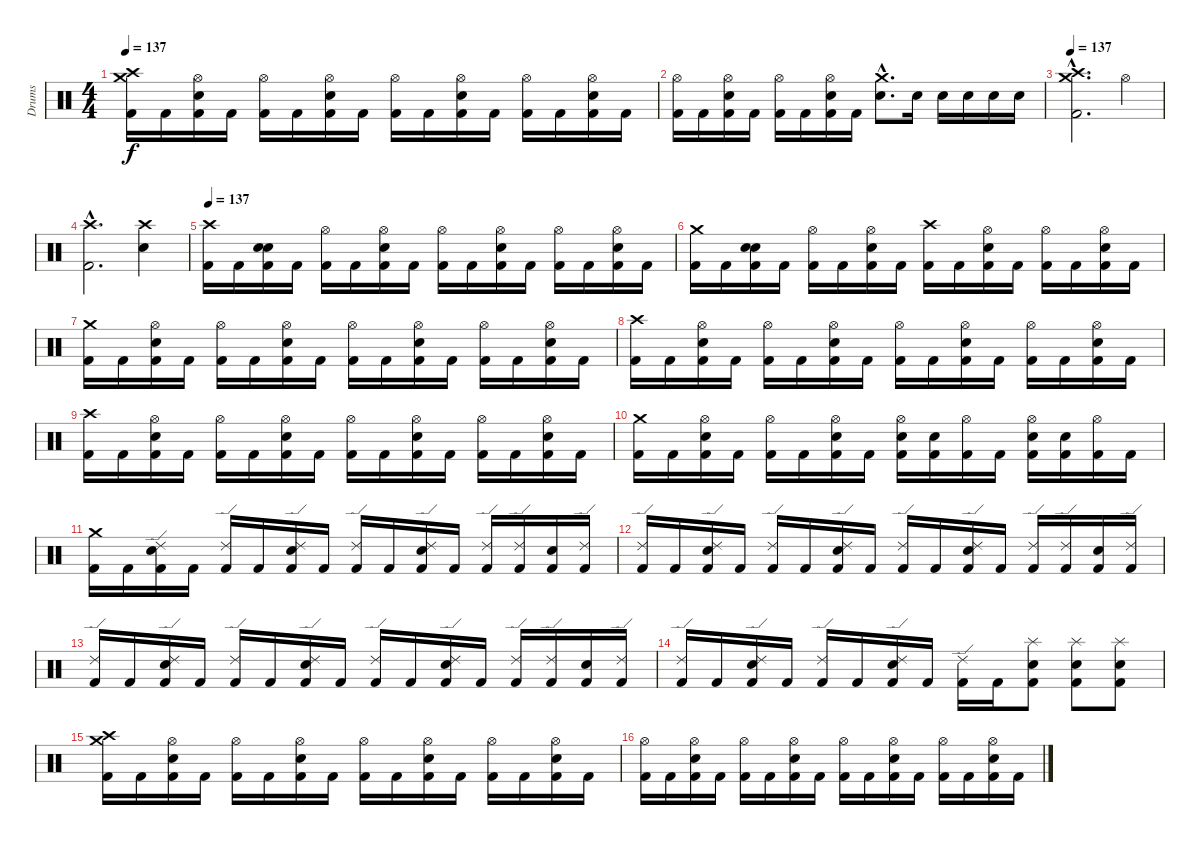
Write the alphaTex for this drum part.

\track ("Drums" "Drums") {instrument percussion}
\staff {score}
\articulation defaults
\ts (4 4)
\tempo 137
\clef neutral
\ks c
("Crash medium (hit)" "Crash high (hit)" "Kick (hit) 2").16{dy f} "Kick (hit) 2".16 ("Hi-Hat (open)" "Snare (hit) 2" "Kick (hit) 2").16 "Kick (hit) 2".16 ("Hi-Hat (open)" "Kick (hit) 2").16 "Kick (hit) 2".16 ("Hi-Hat (open)" "Snare (hit) 2" "Kick (hit) 2").16 "Kick (hit) 2".16 ("Hi-Hat (open)" "Kick (hit) 2").16 "Kick (hit) 2".16 ("Hi-Hat (open)" "Snare (hit) 2" "Kick (hit) 2").16 "Kick (hit) 2".16 ("Hi-Hat (open)" "Kick (hit) 2").16 "Kick (hit) 2".16 ("Hi-Hat (open)" "Snare (hit) 2" "Kick (hit) 2").16 "Kick (hit) 2".16 |
("Hi-Hat (open)" "Kick (hit) 2").16 "Kick (hit) 2".16 ("Hi-Hat (open)" "Snare (hit) 2" "Kick (hit) 2").16 "Kick (hit) 2".16 ("Hi-Hat (open)" "Kick (hit) 2").16 "Kick (hit) 2".16 ("Hi-Hat (open)" "Snare (hit) 2" "Kick (hit) 2").16 "Kick (hit) 2".16 ("Crash medium (hit)" "Snare (hit) 2"{hac}).8{d} "Snare (hit) 2".16 "Snare (hit) 2".16 "Snare (hit) 2".16 "Electric Snare (hit)".16 "Snare (hit) 2".16 |
\tempo 137
("Crash high (hit)" "Crash medium (hit)" "Kick (hit) 2"{hac}).2{d} "Hi-Hat (open)".4 |
("Crash high (hit)"{hac} "Kick (hit) 2"{hac}).2{d} ("Crash high (hit)" "Snare (hit) 2").4 |
\tempo 137
("Crash high (hit)" "Kick (hit) 2").16 "Kick (hit) 2".16 ("Electric Snare (hit)" "Snare (hit) 2" "Kick (hit) 2").16 "Kick (hit) 2".16 ("Hi-Hat (open)" "Kick (hit) 2").16 "Kick (hit) 2".16 ("Hi-Hat (open)" "Snare (hit) 2" "Kick (hit) 2").16 "Kick (hit) 2".16 ("Hi-Hat (open)" "Kick (hit) 2").16 "Kick (hit) 2".16 ("Hi-Hat (open)" "Snare (hit) 2" "Kick (hit) 2").16 "Kick (hit) 2".16 ("Hi-Hat (open)" "Kick (hit) 2").16 "Kick (hit) 2".16 ("Hi-Hat (open)" "Snare (hit) 2" "Kick (hit) 2").16 "Kick (hit) 2".16 |
("Crash medium (hit)" "Kick (hit) 2").16 "Kick (hit) 2".16 ("Electric Snare (hit)" "Snare (hit) 2" "Kick (hit) 2").16 "Kick (hit) 2".16 ("Hi-Hat (open)" "Kick (hit) 2").16 "Kick (hit) 2".16 ("Hi-Hat (open)" "Snare (hit) 2" "Kick (hit) 2").16 "Kick (hit) 2".16 ("Crash high (hit)" "Kick (hit) 2").16 "Kick (hit) 2".16 ("Hi-Hat (open)" "Snare (hit) 2" "Kick (hit) 2").16 "Kick (hit) 2".16 ("Hi-Hat (open)" "Kick (hit) 2").16 "Kick (hit) 2".16 ("Hi-Hat (open)" "Snare (hit) 2" "Kick (hit) 2").16 "Kick (hit) 2".16 |
("Crash medium (hit)" "Kick (hit) 2").16 "Kick (hit) 2".16 ("Hi-Hat (open)" "Snare (hit) 2" "Kick (hit) 2").16 "Kick (hit) 2".16 ("Hi-Hat (open)" "Kick (hit) 2").16 "Kick (hit) 2".16 ("Hi-Hat (open)" "Snare (hit) 2" "Kick (hit) 2").16 "Kick (hit) 2".16 ("Hi-Hat (open)" "Kick (hit) 2").16 "Kick (hit) 2".16 ("Hi-Hat (open)" "Snare (hit) 2" "Kick (hit) 2").16 "Kick (hit) 2".16 ("Hi-Hat (open)" "Kick (hit) 2").16 "Kick (hit) 2".16 ("Hi-Hat (open)" "Snare (hit) 2" "Kick (hit) 2").16 "Kick (hit) 2".16 |
("Crash high (hit)" "Kick (hit) 2").16 "Kick (hit) 2".16 ("Hi-Hat (open)" "Snare (hit) 2" "Kick (hit) 2").16 "Kick (hit) 2".16 ("Hi-Hat (open)" "Kick (hit) 2").16 "Kick (hit) 2".16 ("Hi-Hat (open)" "Snare (hit) 2" "Kick (hit) 2").16 "Kick (hit) 2".16 ("Hi-Hat (open)" "Kick (hit) 2").16 "Kick (hit) 2".16 ("Hi-Hat (open)" "Snare (hit) 2" "Kick (hit) 2").16 "Kick (hit) 2".16 ("Hi-Hat (open)" "Kick (hit) 2").16 "Kick (hit) 2".16 ("Hi-Hat (open)" "Snare (hit) 2" "Kick (hit) 2").16 "Kick (hit) 2".16 |
("Crash high (hit)" "Kick (hit) 2").16 "Kick (hit) 2".16 ("Hi-Hat (open)" "Snare (hit) 2" "Kick (hit) 2").16 "Kick (hit) 2".16 ("Hi-Hat (open)" "Kick (hit) 2").16 "Kick (hit) 2".16 ("Hi-Hat (open)" "Snare (hit) 2" "Kick (hit) 2").16 "Kick (hit) 2".16 ("Hi-Hat (open)" "Kick (hit) 2").16 "Kick (hit) 2".16 ("Hi-Hat (open)" "Snare (hit) 2" "Kick (hit) 2").16 "Kick (hit) 2".16 ("Hi-Hat (open)" "Kick (hit) 2").16 "Kick (hit) 2".16 ("Hi-Hat (open)" "Snare (hit) 2" "Kick (hit) 2").16 "Kick (hit) 2".16 |
("Crash medium (hit)" "Kick (hit) 2").16 "Kick (hit) 2".16 ("Hi-Hat (open)" "Snare (hit) 2" "Kick (hit) 2").16 "Kick (hit) 2".16 ("Hi-Hat (open)" "Kick (hit) 2").16 "Kick (hit) 2".16 ("Hi-Hat (open)" "Snare (hit) 2" "Kick (hit) 2").16 "Kick (hit) 2".16 ("Hi-Hat (open)" "Snare (hit) 2" "Kick (hit) 2").16 ("Snare (hit) 2" "Kick (hit) 2").16 ("Hi-Hat (open)" "Kick (hit) 2").16 "Kick (hit) 2".16 ("Hi-Hat (open)" "Snare (hit) 2" "Kick (hit) 2").16 ("Snare (hit) 2" "Kick (hit) 2").16 ("Hi-Hat (open)" "Kick (hit) 2").16 "Kick (hit) 2".16 |
("Crash medium (hit)" "Kick (hit) 2").16 "Kick (hit) 2".16 ("Ride (edge) 2" "Snare (hit) 2" "Kick (hit) 2").16 "Kick (hit) 2".16 ("Ride (edge) 2" "Kick (hit) 2").16 "Kick (hit) 2".16 ("Ride (edge) 2" "Snare (hit) 2" "Kick (hit) 2").16 "Kick (hit) 2".16 ("Ride (edge) 2" "Kick (hit) 2").16 "Kick (hit) 2".16 ("Ride (edge) 2" "Snare (hit) 2" "Kick (hit) 2").16 "Kick (hit) 2".16 ("Ride (edge) 2" "Kick (hit) 2").16 ("Ride (edge) 2" "Kick (hit) 2").16 ("Snare (hit) 2" "Kick (hit) 2").16 ("Ride (edge) 2" "Kick (hit) 2").16 |
("Ride (edge) 2" "Kick (hit) 2").16 "Kick (hit) 2".16 ("Ride (edge) 2" "Snare (hit) 2" "Kick (hit) 2").16 "Kick (hit) 2".16 ("Ride (edge) 2" "Kick (hit) 2").16 "Kick (hit) 2".16 ("Ride (edge) 2" "Snare (hit) 2" "Kick (hit) 2").16 "Kick (hit) 2".16 ("Ride (edge) 2" "Kick (hit) 2").16 "Kick (hit) 2".16 ("Ride (edge) 2" "Snare (hit) 2" "Kick (hit) 2").16 "Kick (hit) 2".16 ("Ride (edge) 2" "Kick (hit) 2").16 ("Ride (edge) 2" "Kick (hit) 2").16 ("Snare (hit) 2" "Kick (hit) 2").16 ("Ride (edge) 2" "Kick (hit) 2").16 |
("Ride (edge) 2" "Kick (hit) 2").16 "Kick (hit) 2".16 ("Ride (edge) 2" "Snare (hit) 2" "Kick (hit) 2").16 "Kick (hit) 2".16 ("Ride (edge) 2" "Kick (hit) 2").16 "Kick (hit) 2".16 ("Ride (edge) 2" "Snare (hit) 2" "Kick (hit) 2").16 "Kick (hit) 2".16 ("Ride (edge) 2" "Kick (hit) 2").16 "Kick (hit) 2".16 ("Ride (edge) 2" "Snare (hit) 2" "Kick (hit) 2").16 "Kick (hit) 2".16 ("Ride (edge) 2" "Kick (hit) 2").16 ("Ride (edge) 2" "Kick (hit) 2").16 ("Snare (hit) 2" "Kick (hit) 2").16 ("Ride (edge) 2" "Kick (hit) 2").16 |
("Ride (edge) 2" "Kick (hit) 2").16 "Kick (hit) 2".16 ("Ride (edge) 2" "Snare (hit) 2" "Kick (hit) 2").16 "Kick (hit) 2".16 ("Ride (edge) 2" "Kick (hit) 2").16 "Kick (hit) 2".16 ("Ride (edge) 2" "Snare (hit) 2" "Kick (hit) 2").16 "Kick (hit) 2".16 ("Ride (edge) 2" "Kick (hit) 2").16 "Kick (hit) 2".16 ("Splash (hit)" "Snare (hit) 2" "Kick (hit) 2").8 ("Splash (hit)" "Snare (hit) 2" "Kick (hit) 2").8 ("Splash (hit)" "Snare (hit) 2" "Kick (hit) 2").8 |
("Crash medium (hit)" "Crash high (hit)" "Kick (hit) 2").16 "Kick (hit) 2".16 ("Hi-Hat (open)" "Snare (hit) 2" "Kick (hit) 2").16 "Kick (hit) 2".16 ("Hi-Hat (open)" "Kick (hit) 2").16 "Kick (hit) 2".16 ("Hi-Hat (open)" "Snare (hit) 2" "Kick (hit) 2").16 "Kick (hit) 2".16 ("Hi-Hat (open)" "Kick (hit) 2").16 "Kick (hit) 2".16 ("Hi-Hat (open)" "Snare (hit) 2" "Kick (hit) 2").16 "Kick (hit) 2".16 ("Hi-Hat (open)" "Kick (hit) 2").16 "Kick (hit) 2".16 ("Hi-Hat (open)" "Snare (hit) 2" "Kick (hit) 2").16 "Kick (hit) 2".16 |
("Hi-Hat (open)" "Kick (hit) 2").16 "Kick (hit) 2".16 ("Hi-Hat (open)" "Snare (hit) 2" "Kick (hit) 2").16 "Kick (hit) 2".16 ("Hi-Hat (open)" "Kick (hit) 2").16 "Kick (hit) 2".16 ("Hi-Hat (open)" "Snare (hit) 2" "Kick (hit) 2").16 "Kick (hit) 2".16 ("Hi-Hat (open)" "Kick (hit) 2").16 "Kick (hit) 2".16 ("Hi-Hat (open)" "Snare (hit) 2" "Kick (hit) 2").16 "Kick (hit) 2".16 ("Hi-Hat (open)" "Kick (hit) 2").16 "Kick (hit) 2".16 ("Hi-Hat (open)" "Snare (hit) 2" "Kick (hit) 2").16 "Kick (hit) 2".16
